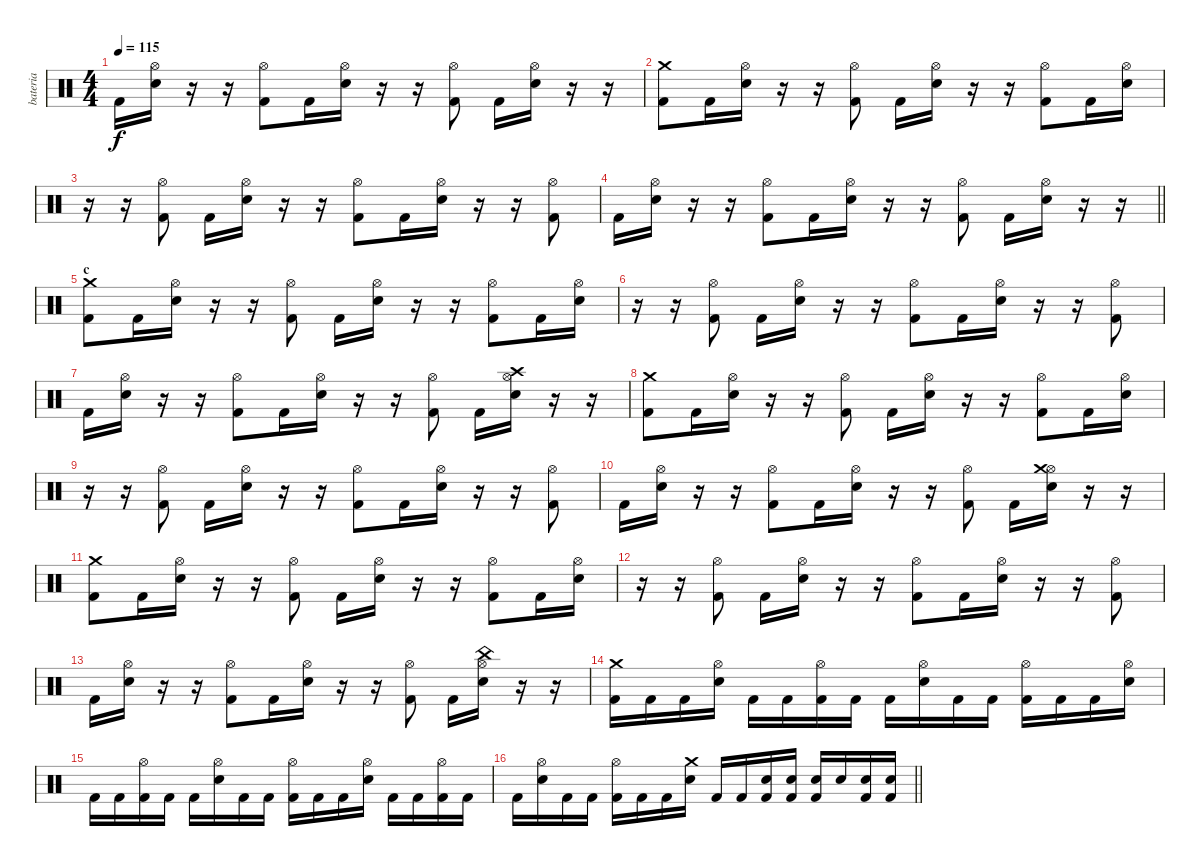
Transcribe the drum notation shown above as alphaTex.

\track ("bateria" "bateria") {mute instrument percussion}
\staff {score}
\articulation defaults
\ts (4 4)
\tempo 115
\clef neutral
\ks c "Kick (hit) 2".16{dy f}
("Electric Snare (hit)" "Hi-Hat (open)").16 r.16 r.16 ("Kick (hit) 2" "Hi-Hat (open)").8 "Kick (hit) 2".16 ("Hi-Hat (open)" "Electric Snare (hit)").16 r.16 r.16 ("Kick (hit) 2" "Hi-Hat (open)").8 "Kick (hit) 2".16 ("Hi-Hat (open)" "Electric Snare (hit)").16 r.16 r.16 |
("Kick (hit) 2" "Crash medium (hit)").8 "Kick (hit) 2".16 ("Electric Snare (hit)" "Hi-Hat (open)").16 r.16 r.16 ("Kick (hit) 2" "Hi-Hat (open)").8 "Kick (hit) 2".16 ("Hi-Hat (open)" "Electric Snare (hit)").16 r.16 r.16 ("Kick (hit) 2" "Hi-Hat (open)").8 "Kick (hit) 2".16 ("Hi-Hat (open)" "Electric Snare (hit)").16 |
r.16 r.16 ("Kick (hit) 2" "Hi-Hat (open)").8 "Kick (hit) 2".16 ("Hi-Hat (open)" "Electric Snare (hit)").16 r.16 r.16 ("Kick (hit) 2" "Hi-Hat (open)").8 "Kick (hit) 2".16 ("Hi-Hat (open)" "Electric Snare (hit)").16 r.16 r.16 ("Kick (hit) 2" "Hi-Hat (open)").8 |
\barLineRight lightlight "Kick (hit) 2".16
("Electric Snare (hit)" "Hi-Hat (open)").16 r.16 r.16 ("Kick (hit) 2" "Hi-Hat (open)").8 "Kick (hit) 2".16 ("Hi-Hat (open)" "Electric Snare (hit)").16 r.16 r.16 ("Kick (hit) 2" "Hi-Hat (open)").8 "Kick (hit) 2".16 ("Hi-Hat (open)" "Electric Snare (hit)").16 r.16 r.16 |
\section ("" "c")
("Kick (hit) 2" "Crash medium (hit)").8 "Kick (hit) 2".16 ("Electric Snare (hit)" "Hi-Hat (open)").16 r.16 r.16 ("Kick (hit) 2" "Hi-Hat (open)").8 "Kick (hit) 2".16 ("Hi-Hat (open)" "Electric Snare (hit)").16 r.16 r.16 ("Kick (hit) 2" "Hi-Hat (open)").8 "Kick (hit) 2".16 ("Hi-Hat (open)" "Electric Snare (hit)").16 |
r.16 r.16 ("Kick (hit) 2" "Hi-Hat (open)").8 "Kick (hit) 2".16 ("Hi-Hat (open)" "Electric Snare (hit)").16 r.16 r.16 ("Kick (hit) 2" "Hi-Hat (open)").8 "Kick (hit) 2".16 ("Hi-Hat (open)" "Electric Snare (hit)").16 r.16 r.16 ("Kick (hit) 2" "Hi-Hat (open)").8 |
"Kick (hit) 2".16 ("Electric Snare (hit)" "Hi-Hat (open)").16 r.16 r.16 ("Kick (hit) 2" "Hi-Hat (open)").8 "Kick (hit) 2".16 ("Hi-Hat (open)" "Electric Snare (hit)").16 r.16 r.16 ("Kick (hit) 2" "Hi-Hat (open)").8 "Kick (hit) 2".16 ("Hi-Hat (open)" "Electric Snare (hit)" "Crash high (hit)").16 r.16 r.16 |
("Kick (hit) 2" "Crash medium (hit)").8 "Kick (hit) 2".16 ("Electric Snare (hit)" "Hi-Hat (open)").16 r.16 r.16 ("Kick (hit) 2" "Hi-Hat (open)").8 "Kick (hit) 2".16 ("Hi-Hat (open)" "Electric Snare (hit)").16 r.16 r.16 ("Kick (hit) 2" "Hi-Hat (open)").8 "Kick (hit) 2".16 ("Hi-Hat (open)" "Electric Snare (hit)").16 |
r.16 r.16 ("Kick (hit) 2" "Hi-Hat (open)").8 "Kick (hit) 2".16 ("Hi-Hat (open)" "Electric Snare (hit)").16 r.16 r.16 ("Kick (hit) 2" "Hi-Hat (open)").8 "Kick (hit) 2".16 ("Hi-Hat (open)" "Electric Snare (hit)").16 r.16 r.16 ("Kick (hit) 2" "Hi-Hat (open)").8 |
"Kick (hit) 2".16 ("Electric Snare (hit)" "Hi-Hat (open)").16 r.16 r.16 ("Kick (hit) 2" "Hi-Hat (open)").8 "Kick (hit) 2".16 ("Hi-Hat (open)" "Electric Snare (hit)").16 r.16 r.16 ("Kick (hit) 2" "Hi-Hat (open)").8 "Kick (hit) 2".16 ("Hi-Hat (open)" "Electric Snare (hit)" "Crash medium (hit)").16 r.16 r.16 |
("Kick (hit) 2" "Crash medium (hit)").8 "Kick (hit) 2".16 ("Electric Snare (hit)" "Hi-Hat (open)").16 r.16 r.16 ("Kick (hit) 2" "Hi-Hat (open)").8 "Kick (hit) 2".16 ("Hi-Hat (open)" "Electric Snare (hit)").16 r.16 r.16 ("Kick (hit) 2" "Hi-Hat (open)").8 "Kick (hit) 2".16 ("Hi-Hat (open)" "Electric Snare (hit)").16 |
r.16 r.16 ("Kick (hit) 2" "Hi-Hat (open)").8 "Kick (hit) 2".16 ("Hi-Hat (open)" "Electric Snare (hit)").16 r.16 r.16 ("Kick (hit) 2" "Hi-Hat (open)").8 "Kick (hit) 2".16 ("Hi-Hat (open)" "Electric Snare (hit)").16 r.16 r.16 ("Kick (hit) 2" "Hi-Hat (open)").8 |
"Kick (hit) 2".16 ("Electric Snare (hit)" "Hi-Hat (open)").16 r.16 r.16 ("Kick (hit) 2" "Hi-Hat (open)").8 "Kick (hit) 2".16 ("Hi-Hat (open)" "Electric Snare (hit)").16 r.16 r.16 ("Kick (hit) 2" "Hi-Hat (open)").8 "Kick (hit) 2".16 ("Hi-Hat (open)" "Electric Snare (hit)" "China (hit)").16 r.16 r.16 |
("Kick (hit) 2" "Crash medium (hit)").16 "Kick (hit) 2".16 "Kick (hit) 2".16 ("Electric Snare (hit)" "Hi-Hat (open)").16 "Kick (hit) 2".16 "Kick (hit) 2".16 ("Kick (hit) 2" "Hi-Hat (open)").16 "Kick (hit) 2".16 "Kick (hit) 2".16 ("Hi-Hat (open)" "Electric Snare (hit)").16 "Kick (hit) 2".16 "Kick (hit) 2".16 ("Kick (hit) 2" "Hi-Hat (open)").16 "Kick (hit) 2".16 "Kick (hit) 2".16 ("Hi-Hat (open)" "Electric Snare (hit)").16 |
"Kick (hit) 2".16 "Kick (hit) 2".16 ("Kick (hit) 2" "Hi-Hat (open)").16 "Kick (hit) 2".16 "Kick (hit) 2".16 ("Hi-Hat (open)" "Electric Snare (hit)").16 "Kick (hit) 2".16 "Kick (hit) 2".16 ("Kick (hit) 2" "Hi-Hat (open)").16 "Kick (hit) 2".16 "Kick (hit) 2".16 ("Hi-Hat (open)" "Electric Snare (hit)").16 "Kick (hit) 2".16 "Kick (hit) 2".16 ("Kick (hit) 2" "Hi-Hat (open)").16 "Kick (hit) 2".16 |
\barLineRight lightlight "Kick (hit) 2".16
("Hi-Hat (open)" "Electric Snare (hit)").16 "Kick (hit) 2".16 "Kick (hit) 2".16 ("Kick (hit) 2" "Hi-Hat (open)").16 "Kick (hit) 2".16 "Kick (hit) 2".16 ("Electric Snare (hit)" "Crash medium (hit)").16 "Kick (hit) 2".16 "Kick (hit) 2".16 ("Kick (hit) 2" "Electric Snare (hit)").16 ("Kick (hit) 2" "Electric Snare (hit)").16 ("Kick (hit) 2" "Electric Snare (hit)").16 "Electric Snare (hit)".16 ("Kick (hit) 2" "Electric Snare (hit)").16 ("Kick (hit) 2" "Electric Snare (hit)").16
